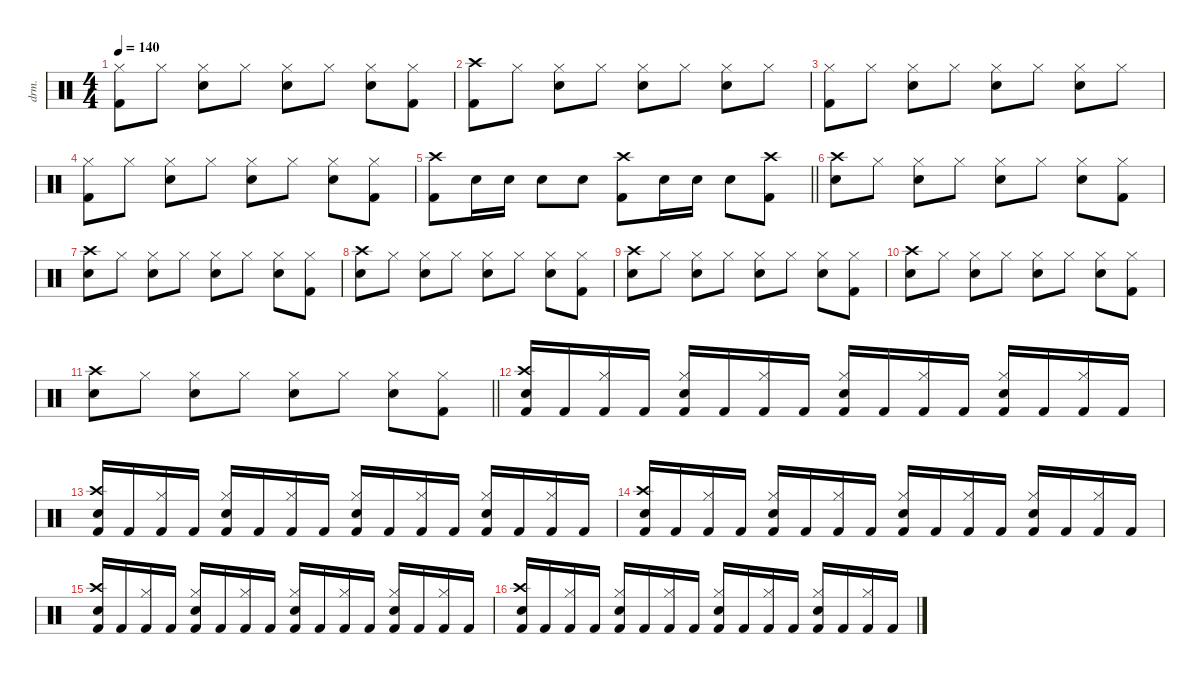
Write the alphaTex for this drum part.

\defaultSystemsLayout 4
\hideDynamics
\bracketExtendMode nobrackets
\otherSystemsTrackNameOrientation horizontal
\track ("Drums" "drm.") {defaultSystemsLayout 4 instrument percussion}
\staff {score}
\articulation defaults
\ts (4 4)
\tempo 140
\clef neutral
\ks c
("Hi-Hat (closed)" "Kick (hit) 2").8{dy f beam Down} "Hi-Hat (closed)".8{beam Down} ("Hi-Hat (closed)" "Snare (hit) 2").8{beam Down} "Hi-Hat (closed)".8{beam Down} ("Hi-Hat (closed)" "Snare (hit) 2").8{beam Down} "Hi-Hat (closed)".8{beam Down} ("Hi-Hat (closed)" "Snare (hit) 2").8{beam Down} ("Hi-Hat (closed)" "Kick (hit) 2").8{beam Down} |
("Crash high (hit)" "Kick (hit) 2").8{beam Down} "Hi-Hat (closed)".8{beam Down} ("Hi-Hat (closed)" "Snare (hit) 2").8{beam Down} "Hi-Hat (closed)".8{beam Down} ("Hi-Hat (closed)" "Snare (hit) 2").8{beam Down} "Hi-Hat (closed)".8{beam Down} ("Hi-Hat (closed)" "Snare (hit) 2").8{beam Down} "Hi-Hat (closed)".8{beam Down} |
("Hi-Hat (closed)" "Kick (hit) 2").8{beam Down} "Hi-Hat (closed)".8{beam Down} ("Hi-Hat (closed)" "Snare (hit) 2").8{beam Down} "Hi-Hat (closed)".8{beam Down} ("Hi-Hat (closed)" "Snare (hit) 2").8{beam Down} "Hi-Hat (closed)".8{beam Down} ("Hi-Hat (closed)" "Snare (hit) 2").8{beam Down} "Hi-Hat (closed)".8{beam Down} |
("Hi-Hat (closed)" "Kick (hit) 2").8{beam Down} "Hi-Hat (closed)".8{beam Down} ("Hi-Hat (closed)" "Snare (hit) 2").8{beam Down} "Hi-Hat (closed)".8{beam Down} ("Hi-Hat (closed)" "Snare (hit) 2").8{beam Down} "Hi-Hat (closed)".8{beam Down} ("Hi-Hat (closed)" "Snare (hit) 2").8{beam Down} ("Hi-Hat (closed)" "Kick (hit) 2").8{beam Down} |
\barLineRight lightlight
("Crash high (hit)" "Kick (hit) 2").8{beam Down} "Snare (hit) 2".16{beam Down} "Snare (hit) 2".16{beam Down} "Snare (hit) 2".8{beam Down} "Snare (hit) 2".8{beam Down} ("Crash high (hit)" "Kick (hit) 2").8{beam Down} "Snare (hit) 2".16{beam Down} "Snare (hit) 2".16{beam Down} "Snare (hit) 2".8{beam Down} ("Crash high (hit)" "Kick (hit) 2").8{beam Down} |
("Crash high (hit)" "Snare (hit) 2").8{beam Down} "Hi-Hat (closed)".8{beam Down} ("Hi-Hat (closed)" "Snare (hit) 2").8{beam Down} "Hi-Hat (closed)".8{beam Down} ("Hi-Hat (closed)" "Snare (hit) 2").8{beam Down} "Hi-Hat (closed)".8{beam Down} ("Hi-Hat (closed)" "Snare (hit) 2").8{beam Down} ("Hi-Hat (closed)" "Kick (hit) 2").8{beam Down} |
("Crash high (hit)" "Snare (hit) 2").8{beam Down} "Hi-Hat (closed)".8{beam Down} ("Hi-Hat (closed)" "Snare (hit) 2").8{beam Down} "Hi-Hat (closed)".8{beam Down} ("Hi-Hat (closed)" "Snare (hit) 2").8{beam Down} "Hi-Hat (closed)".8{beam Down} ("Hi-Hat (closed)" "Snare (hit) 2").8{beam Down} ("Hi-Hat (closed)" "Kick (hit) 2").8{beam Down} |
("Crash high (hit)" "Snare (hit) 2").8{beam Down} "Hi-Hat (closed)".8{beam Down} ("Hi-Hat (closed)" "Snare (hit) 2").8{beam Down} "Hi-Hat (closed)".8{beam Down} ("Hi-Hat (closed)" "Snare (hit) 2").8{beam Down} "Hi-Hat (closed)".8{beam Down} ("Hi-Hat (closed)" "Snare (hit) 2").8{beam Down} ("Hi-Hat (closed)" "Kick (hit) 2").8{beam Down} |
("Crash high (hit)" "Snare (hit) 2").8{beam Down} "Hi-Hat (closed)".8{beam Down} ("Hi-Hat (closed)" "Snare (hit) 2").8{beam Down} "Hi-Hat (closed)".8{beam Down} ("Hi-Hat (closed)" "Snare (hit) 2").8{beam Down} "Hi-Hat (closed)".8{beam Down} ("Hi-Hat (closed)" "Snare (hit) 2").8{beam Down} ("Hi-Hat (closed)" "Kick (hit) 2").8{beam Down} |
("Crash high (hit)" "Snare (hit) 2").8{beam Down} "Hi-Hat (closed)".8{beam Down} ("Hi-Hat (closed)" "Snare (hit) 2").8{beam Down} "Hi-Hat (closed)".8{beam Down} ("Hi-Hat (closed)" "Snare (hit) 2").8{beam Down} "Hi-Hat (closed)".8{beam Down} ("Hi-Hat (closed)" "Snare (hit) 2").8{beam Down} ("Hi-Hat (closed)" "Kick (hit) 2").8{beam Down} |
\barLineRight lightlight
("Crash high (hit)" "Snare (hit) 2").8{beam Down} "Hi-Hat (closed)".8{beam Down} ("Hi-Hat (closed)" "Snare (hit) 2").8{beam Down} "Hi-Hat (closed)".8{beam Down} ("Hi-Hat (closed)" "Snare (hit) 2").8{beam Down} "Hi-Hat (closed)".8{beam Down} ("Hi-Hat (closed)" "Snare (hit) 2").8{beam Down} ("Hi-Hat (closed)" "Kick (hit) 2").8{beam Down} |
("Crash high (hit)" "Snare (hit) 2" "Kick (hit) 2").16{beam Up} "Kick (hit) 2".16{beam Up} ("Hi-Hat (closed)" "Kick (hit) 2").16{beam Up} "Kick (hit) 2".16{beam Up} ("Hi-Hat (closed)" "Snare (hit) 2" "Kick (hit) 2").16{beam Up} "Kick (hit) 2".16{beam Up} ("Hi-Hat (closed)" "Kick (hit) 2").16{beam Up} "Kick (hit) 2".16{beam Up} ("Hi-Hat (closed)" "Snare (hit) 2" "Kick (hit) 2").16{beam Up} "Kick (hit) 2".16{beam Up} ("Hi-Hat (closed)" "Kick (hit) 2").16{beam Up} "Kick (hit) 2".16{beam Up} ("Hi-Hat (closed)" "Snare (hit) 2" "Kick (hit) 2").16{beam Up} "Kick (hit) 2".16{beam Up} ("Hi-Hat (closed)" "Kick (hit) 2").16{beam Up} "Kick (hit) 2".16{beam Up} |
("Crash high (hit)" "Snare (hit) 2" "Kick (hit) 2").16{beam Up} "Kick (hit) 2".16{beam Up} ("Hi-Hat (closed)" "Kick (hit) 2").16{beam Up} "Kick (hit) 2".16{beam Up} ("Hi-Hat (closed)" "Snare (hit) 2" "Kick (hit) 2").16{beam Up} "Kick (hit) 2".16{beam Up} ("Hi-Hat (closed)" "Kick (hit) 2").16{beam Up} "Kick (hit) 2".16{beam Up} ("Hi-Hat (closed)" "Snare (hit) 2" "Kick (hit) 2").16{beam Up} "Kick (hit) 2".16{beam Up} ("Hi-Hat (closed)" "Kick (hit) 2").16{beam Up} "Kick (hit) 2".16{beam Up} ("Hi-Hat (closed)" "Snare (hit) 2" "Kick (hit) 2").16{beam Up} "Kick (hit) 2".16{beam Up} ("Hi-Hat (closed)" "Kick (hit) 2").16{beam Up} "Kick (hit) 2".16{beam Up} |
("Crash high (hit)" "Snare (hit) 2" "Kick (hit) 2").16{beam Up} "Kick (hit) 2".16{beam Up} ("Hi-Hat (closed)" "Kick (hit) 2").16{beam Up} "Kick (hit) 2".16{beam Up} ("Hi-Hat (closed)" "Snare (hit) 2" "Kick (hit) 2").16{beam Up} "Kick (hit) 2".16{beam Up} ("Hi-Hat (closed)" "Kick (hit) 2").16{beam Up} "Kick (hit) 2".16{beam Up} ("Hi-Hat (closed)" "Snare (hit) 2" "Kick (hit) 2").16{beam Up} "Kick (hit) 2".16{beam Up} ("Hi-Hat (closed)" "Kick (hit) 2").16{beam Up} "Kick (hit) 2".16{beam Up} ("Hi-Hat (closed)" "Snare (hit) 2" "Kick (hit) 2").16{beam Up} "Kick (hit) 2".16{beam Up} ("Hi-Hat (closed)" "Kick (hit) 2").16{beam Up} "Kick (hit) 2".16{beam Up} |
("Crash high (hit)" "Snare (hit) 2" "Kick (hit) 2").16{beam Up} "Kick (hit) 2".16{beam Up} ("Hi-Hat (closed)" "Kick (hit) 2").16{beam Up} "Kick (hit) 2".16{beam Up} ("Hi-Hat (closed)" "Snare (hit) 2" "Kick (hit) 2").16{beam Up} "Kick (hit) 2".16{beam Up} ("Hi-Hat (closed)" "Kick (hit) 2").16{beam Up} "Kick (hit) 2".16{beam Up} ("Hi-Hat (closed)" "Snare (hit) 2" "Kick (hit) 2").16{beam Up} "Kick (hit) 2".16{beam Up} ("Hi-Hat (closed)" "Kick (hit) 2").16{beam Up} "Kick (hit) 2".16{beam Up} ("Hi-Hat (closed)" "Snare (hit) 2" "Kick (hit) 2").16{beam Up} "Kick (hit) 2".16{beam Up} ("Hi-Hat (closed)" "Kick (hit) 2").16{beam Up} "Kick (hit) 2".16{beam Up} |
("Crash high (hit)" "Snare (hit) 2" "Kick (hit) 2").16{beam Up} "Kick (hit) 2".16{beam Up} ("Hi-Hat (closed)" "Kick (hit) 2").16{beam Up} "Kick (hit) 2".16{beam Up} ("Hi-Hat (closed)" "Snare (hit) 2" "Kick (hit) 2").16{beam Up} "Kick (hit) 2".16{beam Up} ("Hi-Hat (closed)" "Kick (hit) 2").16{beam Up} "Kick (hit) 2".16{beam Up} ("Hi-Hat (closed)" "Snare (hit) 2" "Kick (hit) 2").16{beam Up} "Kick (hit) 2".16{beam Up} ("Hi-Hat (closed)" "Kick (hit) 2").16{beam Up} "Kick (hit) 2".16{beam Up} ("Hi-Hat (closed)" "Snare (hit) 2" "Kick (hit) 2").16{beam Up} "Kick (hit) 2".16{beam Up} ("Hi-Hat (closed)" "Kick (hit) 2").16{beam Up} "Kick (hit) 2".16{beam Up}
